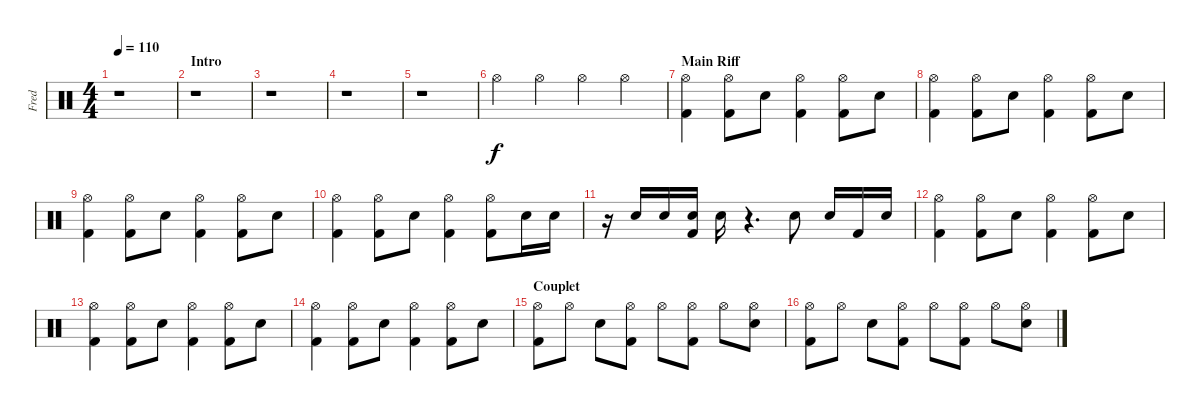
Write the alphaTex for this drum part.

\track ("Fred" "Fred") {instrument percussion}
\staff {score}
\articulation defaults
\ts (4 4)
\tempo 110
\clef neutral
\ks c
r.1{dy f} |
\section ("" "Intro")
r.1 |
r.1 |
r.1 |
r.1 |
"Hi-Hat (open)".4 "Hi-Hat (open)".4 "Hi-Hat (open)".4 "Hi-Hat (open)".4 |
\section ("" "Main Riff")
("Hi-Hat (open)" "Kick (hit) 2").4 ("Hi-Hat (open)" "Kick (hit) 2").8 "Electric Snare (hit)".8 ("Hi-Hat (open)" "Kick (hit) 2").4 ("Hi-Hat (open)" "Kick (hit) 2").8 "Electric Snare (hit)".8 |
("Hi-Hat (open)" "Kick (hit) 2").4 ("Hi-Hat (open)" "Kick (hit) 2").8 "Electric Snare (hit)".8 ("Hi-Hat (open)" "Kick (hit) 2").4 ("Hi-Hat (open)" "Kick (hit) 2").8 "Electric Snare (hit)".8 |
("Hi-Hat (open)" "Kick (hit) 2").4 ("Hi-Hat (open)" "Kick (hit) 2").8 "Electric Snare (hit)".8 ("Hi-Hat (open)" "Kick (hit) 2").4 ("Hi-Hat (open)" "Kick (hit) 2").8 "Electric Snare (hit)".8 |
("Hi-Hat (open)" "Kick (hit) 2").4 ("Hi-Hat (open)" "Kick (hit) 2").8 "Electric Snare (hit)".8 ("Hi-Hat (open)" "Kick (hit) 2").4 ("Hi-Hat (open)" "Kick (hit) 2").8 "Electric Snare (hit)".16 "Electric Snare (hit)".16 |
r.16 "Electric Snare (hit)".16 "Electric Snare (hit)".16 ("Electric Snare (hit)" "Kick (hit) 2").16 "Electric Snare (hit)".16 r.4{d} "Electric Snare (hit)".8 "Electric Snare (hit)".16 "Kick (hit) 2".16 "Electric Snare (hit)".16 |
("Hi-Hat (open)" "Kick (hit) 2").4 ("Hi-Hat (open)" "Kick (hit) 2").8 "Electric Snare (hit)".8 ("Hi-Hat (open)" "Kick (hit) 2").4 ("Hi-Hat (open)" "Kick (hit) 2").8 "Electric Snare (hit)".8 |
("Hi-Hat (open)" "Kick (hit) 2").4 ("Hi-Hat (open)" "Kick (hit) 2").8 "Electric Snare (hit)".8 ("Hi-Hat (open)" "Kick (hit) 2").4 ("Hi-Hat (open)" "Kick (hit) 2").8 "Electric Snare (hit)".8 |
("Hi-Hat (open)" "Kick (hit) 2").4 ("Hi-Hat (open)" "Kick (hit) 2").8 "Electric Snare (hit)".8 ("Hi-Hat (open)" "Kick (hit) 2").4 ("Hi-Hat (open)" "Kick (hit) 2").8 "Electric Snare (hit)".8 |
\section ("" "Couplet")
("Hi-Hat (open)" "Kick (hit) 2").8 "Hi-Hat (open)".8 "Electric Snare (hit)".8 ("Hi-Hat (open)" "Kick (hit) 2").8 "Hi-Hat (open)".8 ("Hi-Hat (open)" "Kick (hit) 2").8 "Hi-Hat (open)".8 ("Hi-Hat (open)" "Electric Snare (hit)").8 |
("Hi-Hat (open)" "Kick (hit) 2").8 "Hi-Hat (open)".8 "Electric Snare (hit)".8 ("Hi-Hat (open)" "Kick (hit) 2").8 "Hi-Hat (open)".8 ("Hi-Hat (open)" "Kick (hit) 2").8 "Hi-Hat (open)".8 ("Hi-Hat (open)" "Electric Snare (hit)").8
